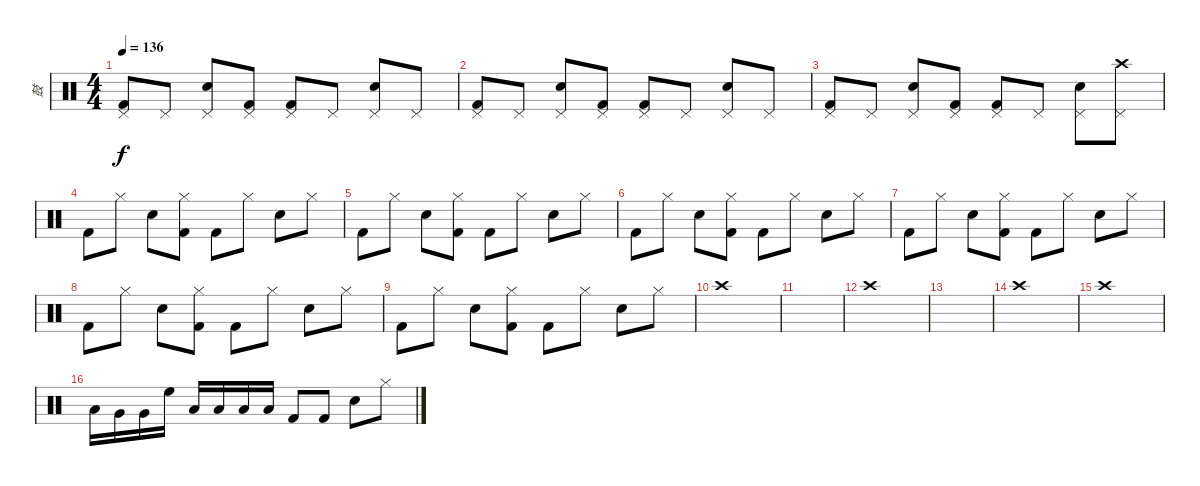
\track ("鼓" "鼓") {instrument percussion}
\staff {score}
\articulation defaults
\ts (4 4)
\tempo 136
\clef neutral
\ks c
("Pedal Hi-Hat (hit)" "Kick (hit) 2").8{dy f} "Pedal Hi-Hat (hit)".8 ("Pedal Hi-Hat (hit)" "Electric Snare (hit)").8 ("Pedal Hi-Hat (hit)" "Kick (hit) 2").8 ("Pedal Hi-Hat (hit)" "Kick (hit) 2").8 "Pedal Hi-Hat (hit)".8 ("Pedal Hi-Hat (hit)" "Electric Snare (hit)").8 "Pedal Hi-Hat (hit)".8 |
("Pedal Hi-Hat (hit)" "Kick (hit) 2").8 "Pedal Hi-Hat (hit)".8 ("Pedal Hi-Hat (hit)" "Electric Snare (hit)").8 ("Pedal Hi-Hat (hit)" "Kick (hit) 2").8 ("Pedal Hi-Hat (hit)" "Kick (hit) 2").8 "Pedal Hi-Hat (hit)".8 ("Pedal Hi-Hat (hit)" "Electric Snare (hit)").8 "Pedal Hi-Hat (hit)".8 |
("Pedal Hi-Hat (hit)" "Kick (hit) 2").8 "Pedal Hi-Hat (hit)".8 ("Pedal Hi-Hat (hit)" "Electric Snare (hit)").8 ("Pedal Hi-Hat (hit)" "Kick (hit) 2").8 ("Pedal Hi-Hat (hit)" "Kick (hit) 2").8 "Pedal Hi-Hat (hit)".8 ("Pedal Hi-Hat (hit)" "Electric Snare (hit)").8 ("Pedal Hi-Hat (hit)" "Crash high (hit)").8 |
"Kick (hit) 2".8 "Hi-Hat (closed)".8 "Electric Snare (hit)".8 ("Hi-Hat (closed)" "Kick (hit) 2").8 "Kick (hit) 2".8 "Hi-Hat (closed)".8 "Electric Snare (hit)".8 "Hi-Hat (closed)".8 |
"Kick (hit) 2".8 "Hi-Hat (closed)".8 "Electric Snare (hit)".8 ("Hi-Hat (closed)" "Kick (hit) 2").8 "Kick (hit) 2".8 "Hi-Hat (closed)".8 "Electric Snare (hit)".8 "Hi-Hat (closed)".8 |
"Kick (hit) 2".8 "Hi-Hat (closed)".8 "Electric Snare (hit)".8 ("Hi-Hat (closed)" "Kick (hit) 2").8 "Kick (hit) 2".8 "Hi-Hat (closed)".8 "Electric Snare (hit)".8 "Hi-Hat (closed)".8 |
"Kick (hit) 2".8 "Hi-Hat (closed)".8 "Electric Snare (hit)".8 ("Hi-Hat (closed)" "Kick (hit) 2").8 "Kick (hit) 2".8 "Hi-Hat (closed)".8 "Electric Snare (hit)".8 "Hi-Hat (closed)".8 |
"Kick (hit) 2".8 "Hi-Hat (closed)".8 "Electric Snare (hit)".8 ("Hi-Hat (closed)" "Kick (hit) 2").8 "Kick (hit) 2".8 "Hi-Hat (closed)".8 "Electric Snare (hit)".8 "Hi-Hat (closed)".8 |
"Kick (hit) 2".8 "Hi-Hat (closed)".8 "Electric Snare (hit)".8 ("Hi-Hat (closed)" "Kick (hit) 2").8 "Kick (hit) 2".8 "Hi-Hat (closed)".8 "Electric Snare (hit)".8 "Hi-Hat (closed)".8 |
"Crash high (hit)".1 |
|
"Crash high (hit)".1 |
|
"Crash high (hit)".1 |
"Crash high (hit)".1 |
"Low Floor Tom (hit)".16 "Very Low Tom (hit)".16 "Very Low Tom (hit)".16 "High Floor Tom (hit)".16 "Low Tom (hit)".16 "Low Tom (hit)".16 "Low Tom (hit)".16 "Low Tom (hit)".16 "Kick (hit) 2".8 "Kick (hit) 2".8 "Electric Snare (hit)".8 "Hi-Hat (closed)".8
